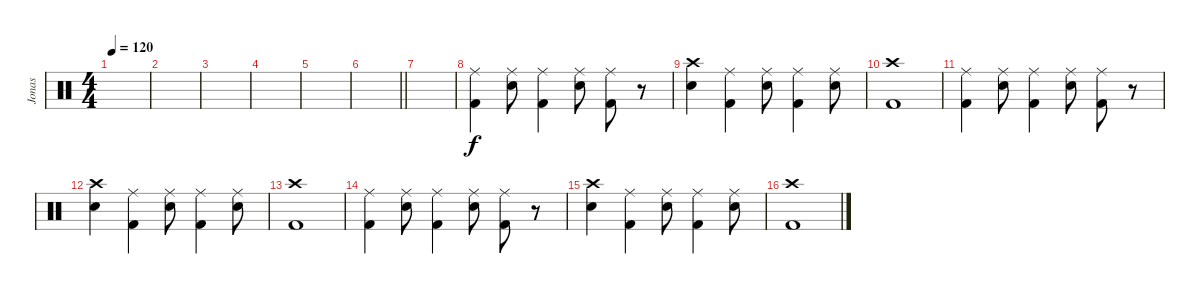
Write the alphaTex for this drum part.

\track ("Jonas" "Jonas") {instrument percussion}
\staff {score}
\articulation defaults
\ts (4 4)
\tempo 120
\clef neutral
\ks c
|
|
|
|
|
\barLineRight lightlight
|
|
("Ride (middle)" "Kick (hit) 2").4 ("Ride (middle)" "Snare (hit) 2").8 ("Ride (middle)" "Kick (hit) 2").4 ("Ride (middle)" "Snare (hit) 2").8 ("Ride (middle)" "Kick (hit) 2").8 r.8 |
("Crash high (hit)" "Snare (hit) 2").4 ("Ride (middle)" "Kick (hit) 2").4 ("Ride (middle)" "Snare (hit) 2").8 ("Ride (middle)" "Kick (hit) 2").4 ("Ride (middle)" "Snare (hit) 2").8 |
("Crash high (hit)" "Kick (hit) 2").1 |
("Ride (middle)" "Kick (hit) 2").4 ("Ride (middle)" "Snare (hit) 2").8 ("Ride (middle)" "Kick (hit) 2").4 ("Ride (middle)" "Snare (hit) 2").8 ("Ride (middle)" "Kick (hit) 2").8 r.8 |
("Crash high (hit)" "Snare (hit) 2").4 ("Ride (middle)" "Kick (hit) 2").4 ("Ride (middle)" "Snare (hit) 2").8 ("Ride (middle)" "Kick (hit) 2").4 ("Ride (middle)" "Snare (hit) 2").8 |
("Crash high (hit)" "Kick (hit) 2").1 |
("Ride (middle)" "Kick (hit) 2").4 ("Ride (middle)" "Snare (hit) 2").8 ("Ride (middle)" "Kick (hit) 2").4 ("Ride (middle)" "Snare (hit) 2").8 ("Ride (middle)" "Kick (hit) 2").8 r.8 |
("Crash high (hit)" "Snare (hit) 2").4 ("Ride (middle)" "Kick (hit) 2").4 ("Ride (middle)" "Snare (hit) 2").8 ("Ride (middle)" "Kick (hit) 2").4 ("Ride (middle)" "Snare (hit) 2").8 |
("Crash high (hit)" "Kick (hit) 2").1
